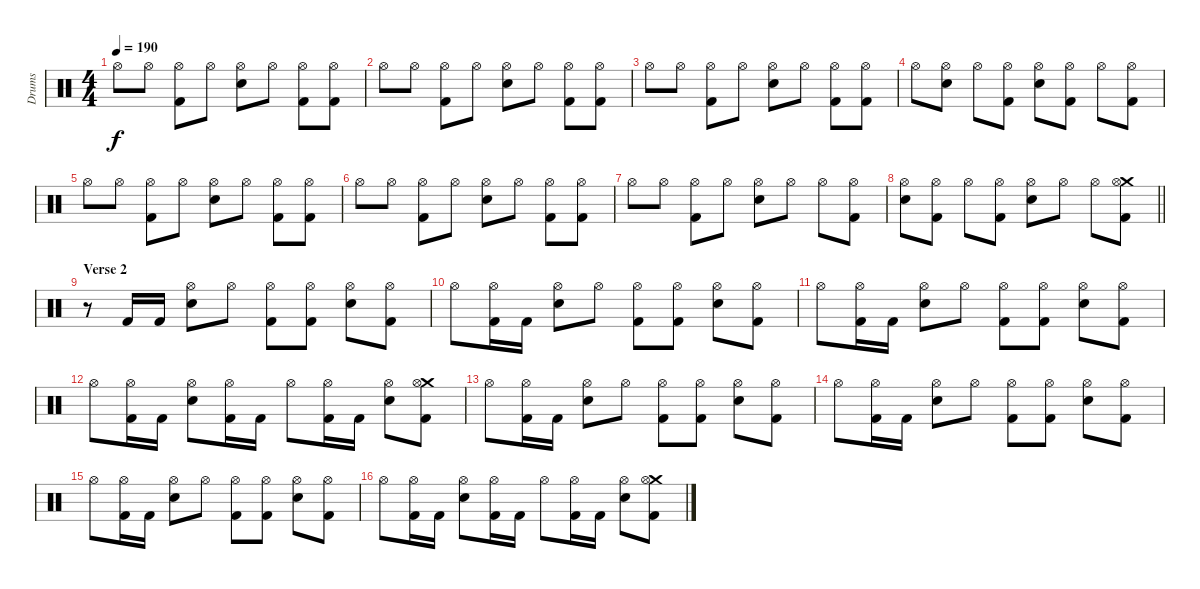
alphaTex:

\track ("Drums" "Drums") {instrument percussion}
\staff {score}
\articulation defaults
\ts (4 4)
\tempo 190
\clef neutral
\ks c "Hi-Hat (open)".8{dy f} "Hi-Hat (open)".8
("Hi-Hat (open)" "Kick (hit) 2").8 "Hi-Hat (open)".8 ("Hi-Hat (open)" "Electric Snare (hit)").8 "Hi-Hat (open)".8 ("Hi-Hat (open)" "Kick (hit) 2").8 ("Hi-Hat (open)" "Kick (hit) 2").8 |
"Hi-Hat (open)".8 "Hi-Hat (open)".8 ("Hi-Hat (open)" "Kick (hit) 2").8 "Hi-Hat (open)".8 ("Hi-Hat (open)" "Electric Snare (hit)").8 "Hi-Hat (open)".8 ("Hi-Hat (open)" "Kick (hit) 2").8 ("Hi-Hat (open)" "Kick (hit) 2").8 |
"Hi-Hat (open)".8 "Hi-Hat (open)".8 ("Hi-Hat (open)" "Kick (hit) 2").8 "Hi-Hat (open)".8 ("Hi-Hat (open)" "Electric Snare (hit)").8 "Hi-Hat (open)".8 ("Hi-Hat (open)" "Kick (hit) 2").8 ("Hi-Hat (open)" "Kick (hit) 2").8 |
"Hi-Hat (open)".8 ("Hi-Hat (open)" "Electric Snare (hit)").8 "Hi-Hat (open)".8 ("Hi-Hat (open)" "Kick (hit) 2").8 ("Hi-Hat (open)" "Electric Snare (hit)").8 ("Hi-Hat (open)" "Kick (hit) 2").8 "Hi-Hat (open)".8 ("Hi-Hat (open)" "Kick (hit) 2").8 |
"Hi-Hat (open)".8 "Hi-Hat (open)".8 ("Hi-Hat (open)" "Kick (hit) 2").8 "Hi-Hat (open)".8 ("Hi-Hat (open)" "Electric Snare (hit)").8 "Hi-Hat (open)".8 ("Hi-Hat (open)" "Kick (hit) 2").8 ("Hi-Hat (open)" "Kick (hit) 2").8 |
"Hi-Hat (open)".8 "Hi-Hat (open)".8 ("Hi-Hat (open)" "Kick (hit) 2").8 "Hi-Hat (open)".8 ("Hi-Hat (open)" "Electric Snare (hit)").8 "Hi-Hat (open)".8 ("Hi-Hat (open)" "Kick (hit) 2").8 ("Hi-Hat (open)" "Kick (hit) 2").8 |
"Hi-Hat (open)".8 "Hi-Hat (open)".8 ("Hi-Hat (open)" "Kick (hit) 2").8 "Hi-Hat (open)".8 ("Hi-Hat (open)" "Electric Snare (hit)").8 "Hi-Hat (open)".8 "Hi-Hat (open)".8 ("Hi-Hat (open)" "Kick (hit) 2").8 |
\barLineRight lightlight
("Hi-Hat (open)" "Electric Snare (hit)").8 ("Hi-Hat (open)" "Kick (hit) 2").8 "Hi-Hat (open)".8 ("Hi-Hat (open)" "Kick (hit) 2").8 ("Hi-Hat (open)" "Electric Snare (hit)").8 "Hi-Hat (open)".8 "Hi-Hat (open)".8 ("Crash medium (hit)" "Hi-Hat (open)" "Kick (hit) 2").8 |
\section ("" "Verse 2")
r.8 "Kick (hit) 2".16 "Kick (hit) 2".16 ("Hi-Hat (open)" "Electric Snare (hit)").8 "Hi-Hat (open)".8 ("Hi-Hat (open)" "Kick (hit) 2").8 ("Hi-Hat (open)" "Kick (hit) 2").8 ("Hi-Hat (open)" "Electric Snare (hit)").8 ("Hi-Hat (open)" "Kick (hit) 2").8 |
"Hi-Hat (open)".8 ("Hi-Hat (open)" "Kick (hit) 2").16 "Kick (hit) 2".16 ("Hi-Hat (open)" "Electric Snare (hit)").8 "Hi-Hat (open)".8 ("Hi-Hat (open)" "Kick (hit) 2").8 ("Hi-Hat (open)" "Kick (hit) 2").8 ("Hi-Hat (open)" "Electric Snare (hit)").8 ("Hi-Hat (open)" "Kick (hit) 2").8 |
"Hi-Hat (open)".8 ("Hi-Hat (open)" "Kick (hit) 2").16 "Kick (hit) 2".16 ("Hi-Hat (open)" "Electric Snare (hit)").8 "Hi-Hat (open)".8 ("Hi-Hat (open)" "Kick (hit) 2").8 ("Hi-Hat (open)" "Kick (hit) 2").8 ("Hi-Hat (open)" "Electric Snare (hit)").8 ("Hi-Hat (open)" "Kick (hit) 2").8 |
"Hi-Hat (open)".8 ("Hi-Hat (open)" "Kick (hit) 2").16 "Kick (hit) 2".16 ("Hi-Hat (open)" "Electric Snare (hit)").8 ("Hi-Hat (open)" "Kick (hit) 2").16 "Kick (hit) 2".16 "Hi-Hat (open)".8 ("Hi-Hat (open)" "Kick (hit) 2").16 "Kick (hit) 2".16 ("Hi-Hat (open)" "Electric Snare (hit)").8 ("Crash medium (hit)" "Hi-Hat (open)" "Kick (hit) 2").8 |
"Hi-Hat (open)".8 ("Hi-Hat (open)" "Kick (hit) 2").16 "Kick (hit) 2".16 ("Hi-Hat (open)" "Electric Snare (hit)").8 "Hi-Hat (open)".8 ("Hi-Hat (open)" "Kick (hit) 2").8 ("Hi-Hat (open)" "Kick (hit) 2").8 ("Hi-Hat (open)" "Electric Snare (hit)").8 ("Hi-Hat (open)" "Kick (hit) 2").8 |
"Hi-Hat (open)".8 ("Hi-Hat (open)" "Kick (hit) 2").16 "Kick (hit) 2".16 ("Hi-Hat (open)" "Electric Snare (hit)").8 "Hi-Hat (open)".8 ("Hi-Hat (open)" "Kick (hit) 2").8 ("Hi-Hat (open)" "Kick (hit) 2").8 ("Hi-Hat (open)" "Electric Snare (hit)").8 ("Hi-Hat (open)" "Kick (hit) 2").8 |
"Hi-Hat (open)".8 ("Hi-Hat (open)" "Kick (hit) 2").16 "Kick (hit) 2".16 ("Hi-Hat (open)" "Electric Snare (hit)").8 "Hi-Hat (open)".8 ("Hi-Hat (open)" "Kick (hit) 2").8 ("Hi-Hat (open)" "Kick (hit) 2").8 ("Hi-Hat (open)" "Electric Snare (hit)").8 ("Hi-Hat (open)" "Kick (hit) 2").8 |
"Hi-Hat (open)".8 ("Hi-Hat (open)" "Kick (hit) 2").16 "Kick (hit) 2".16 ("Hi-Hat (open)" "Electric Snare (hit)").8 ("Hi-Hat (open)" "Kick (hit) 2").16 "Kick (hit) 2".16 "Hi-Hat (open)".8 ("Hi-Hat (open)" "Kick (hit) 2").16 "Kick (hit) 2".16 ("Hi-Hat (open)" "Electric Snare (hit)").8 ("Crash medium (hit)" "Hi-Hat (open)" "Kick (hit) 2").8
